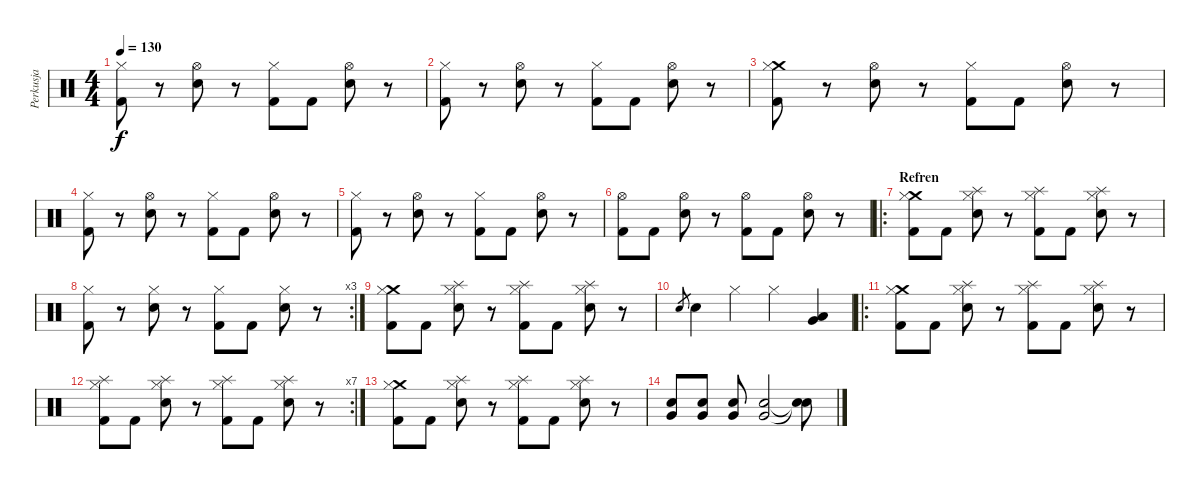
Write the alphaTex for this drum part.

\track ("Perkusja" "Perkusja") {instrument percussion}
\staff {score}
\articulation defaults
\ts (4 4)
\tempo 130
\clef neutral
\ks c
("Hi-Hat (closed)" "Kick (hit) 2").8{dy f} r.8 ("Hi-Hat (open)" "Electric Snare (hit)").8 r.8 ("Hi-Hat (closed)" "Kick (hit) 2").8 "Kick (hit) 2".8 ("Hi-Hat (open)" "Electric Snare (hit)").8 r.8 |
("Hi-Hat (closed)" "Kick (hit) 2").8 r.8 ("Hi-Hat (open)" "Electric Snare (hit)").8 r.8 ("Hi-Hat (closed)" "Kick (hit) 2").8 "Kick (hit) 2".8 ("Hi-Hat (open)" "Electric Snare (hit)").8 r.8 |
("Crash medium (hit)" "Hi-Hat (closed)" "Kick (hit) 2").8 r.8 ("Hi-Hat (open)" "Electric Snare (hit)").8 r.8 ("Hi-Hat (closed)" "Kick (hit) 2").8 "Kick (hit) 2".8 ("Hi-Hat (open)" "Electric Snare (hit)").8 r.8 |
("Hi-Hat (closed)" "Kick (hit) 2").8 r.8 ("Hi-Hat (open)" "Electric Snare (hit)").8 r.8 ("Hi-Hat (closed)" "Kick (hit) 2").8 "Kick (hit) 2".8 ("Hi-Hat (open)" "Electric Snare (hit)").8 r.8 |
("Hi-Hat (closed)" "Kick (hit) 2").8 r.8 ("Hi-Hat (open)" "Electric Snare (hit)").8 r.8 ("Hi-Hat (closed)" "Kick (hit) 2").8 "Kick (hit) 2".8 ("Hi-Hat (open)" "Electric Snare (hit)").8 r.8 |
("Hi-Hat (open)" "Kick (hit) 2").8 "Kick (hit) 2".8 ("Hi-Hat (open)" "Electric Snare (hit)").8 r.8 ("Hi-Hat (open)" "Kick (hit) 2").8 "Kick (hit) 2".8 ("Hi-Hat (open)" "Electric Snare (hit)").8 r.8 |
\ro
\section ("" "Refren")
("Crash medium (hit)" "Hi-Hat (closed)" "Kick (hit) 2").8 "Kick (hit) 2".8 ("Splash (hit)" "Hi-Hat (closed)" "Electric Snare (hit)").8 r.8 ("Splash (hit)" "Hi-Hat (closed)" "Kick (hit) 2").8 "Kick (hit) 2".8 ("Splash (hit)" "Hi-Hat (closed)" "Electric Snare (hit)").8 r.8 |
\rc 3
("Hi-Hat (closed)" "Kick (hit) 2").8 r.8 ("Hi-Hat (closed)" "Electric Snare (hit)").8 r.8 ("Hi-Hat (closed)" "Kick (hit) 2").8 "Kick (hit) 2".8 ("Hi-Hat (closed)" "Electric Snare (hit)").8 r.8 |
("Crash medium (hit)" "Hi-Hat (closed)" "Kick (hit) 2").8 "Kick (hit) 2".8 ("Splash (hit)" "Hi-Hat (closed)" "Electric Snare (hit)").8 r.8 ("Splash (hit)" "Hi-Hat (closed)" "Kick (hit) 2").8 "Kick (hit) 2".8 ("Splash (hit)" "Hi-Hat (closed)" "Electric Snare (hit)").8 r.8 |
"Electric Snare (hit)".8{gr} "Electric Snare (hit)".4 "Hi-Hat (closed)".4 "Hi-Hat (closed)".4 ("Low Floor Tom (hit)" "Very Low Tom (hit)").4 |
\ro
("Crash medium (hit)" "Hi-Hat (closed)" "Kick (hit) 2").8 "Kick (hit) 2".8 ("Splash (hit)" "Hi-Hat (closed)" "Electric Snare (hit)").8 r.8 ("Splash (hit)" "Hi-Hat (closed)" "Kick (hit) 2").8 "Kick (hit) 2".8 ("Splash (hit)" "Hi-Hat (closed)" "Electric Snare (hit)").8 r.8 |
\rc 7
("Splash (hit)" "Hi-Hat (closed)" "Kick (hit) 2").8 "Kick (hit) 2".8 ("Splash (hit)" "Hi-Hat (closed)" "Electric Snare (hit)").8 r.8 ("Splash (hit)" "Hi-Hat (closed)" "Kick (hit) 2").8 "Kick (hit) 2".8 ("Splash (hit)" "Hi-Hat (closed)" "Electric Snare (hit)").8 r.8 |
("Crash medium (hit)" "Hi-Hat (closed)" "Kick (hit) 2").8 "Kick (hit) 2".8 ("Splash (hit)" "Hi-Hat (closed)" "Electric Snare (hit)").8 r.8 ("Splash (hit)" "Hi-Hat (closed)" "Kick (hit) 2").8 "Kick (hit) 2".8 ("Splash (hit)" "Hi-Hat (closed)" "Electric Snare (hit)").8 r.8 |
("Very Low Tom (hit)" "Electric Snare (hit)").8 ("Very Low Tom (hit)" "Electric Snare (hit)").8 ("Very Low Tom (hit)" "Electric Snare (hit)").8 ("Very Low Tom (hit)" "Electric Snare (hit)").2 ("Snare (hit)"{t} "Snare (hit)"{t}).8
